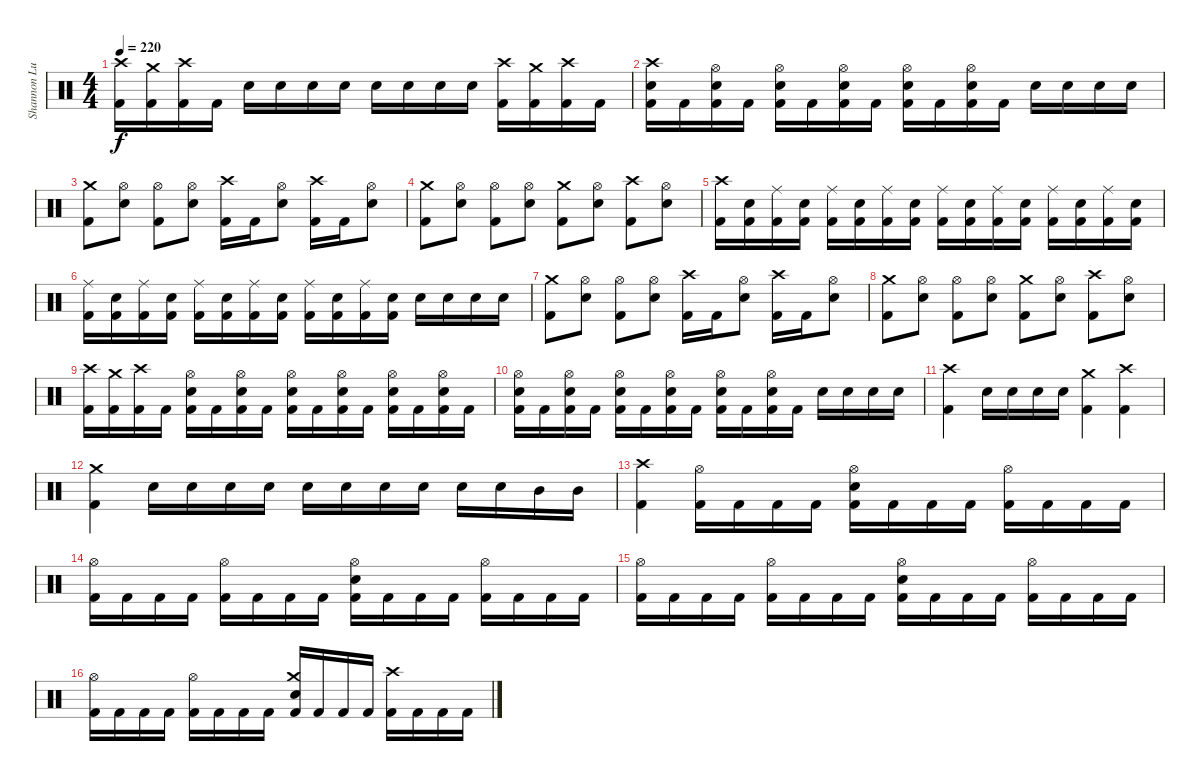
\track ("Shannon Lucas [Drums (Since 2007)]" "Shannon Lu") {instrument percussion}
\staff {score}
\articulation defaults
\ts (4 4)
\tempo 220
\clef neutral
\ks c
("Crash high (hit)" "Kick (hit) 2").16{dy f} ("Crash medium (hit)" "Kick (hit) 2").16 ("Crash high (hit)" "Kick (hit) 2").16 "Kick (hit) 2".16 "Snare (hit) 2".16 "Snare (hit) 2".16 "Snare (hit) 2".16 "Snare (hit) 2".16 "Snare (hit) 2".16 "Snare (hit) 2".16 "Snare (hit) 2".16 "Snare (hit) 2".16 ("Crash high (hit)" "Kick (hit) 2").16 ("Crash medium (hit)" "Kick (hit) 2").16 ("Crash high (hit)" "Kick (hit) 2").16 "Kick (hit) 2".16 |
("Crash high (hit)" "Snare (hit) 2" "Kick (hit) 2").16 "Kick (hit) 2".16 ("Hi-Hat (open)" "Snare (hit) 2" "Kick (hit) 2").16 "Kick (hit) 2".16 ("Hi-Hat (open)" "Snare (hit) 2" "Kick (hit) 2").16 "Kick (hit) 2".16 ("Hi-Hat (open)" "Snare (hit) 2" "Kick (hit) 2").16 "Kick (hit) 2".16 ("Hi-Hat (open)" "Snare (hit) 2" "Kick (hit) 2").16 "Kick (hit) 2".16 ("Hi-Hat (open)" "Snare (hit) 2" "Kick (hit) 2").16 "Kick (hit) 2".16 "Snare (hit) 2".16 "Snare (hit) 2".16 "Snare (hit) 2".16 "Snare (hit) 2".16 |
("Crash medium (hit)" "Kick (hit) 2").8 ("Hi-Hat (open)" "Snare (hit) 2").8 ("Hi-Hat (open)" "Kick (hit) 2").8 ("Hi-Hat (open)" "Snare (hit) 2").8 ("Crash high (hit)" "Kick (hit) 2").16 "Kick (hit) 2".16 ("Hi-Hat (open)" "Snare (hit) 2").8 ("Crash high (hit)" "Kick (hit) 2").16 "Kick (hit) 2".16 ("Hi-Hat (open)" "Snare (hit) 2").8 |
("Crash medium (hit)" "Kick (hit) 2").8 ("Hi-Hat (open)" "Snare (hit) 2").8 ("Hi-Hat (open)" "Kick (hit) 2").8 ("Hi-Hat (open)" "Snare (hit) 2").8 ("Crash medium (hit)" "Kick (hit) 2").8 ("Hi-Hat (open)" "Snare (hit) 2").8 ("Crash high (hit)" "Kick (hit) 2").8 ("Hi-Hat (open)" "Snare (hit) 2").8 |
("Crash high (hit)" "Kick (hit) 2").16 ("Snare (hit) 2" "Kick (hit) 2").16 ("Ride (middle)" "Kick (hit) 2").16 ("Snare (hit) 2" "Kick (hit) 2").16 ("Ride (middle)" "Kick (hit) 2").16 ("Snare (hit) 2" "Kick (hit) 2").16 ("Ride (middle)" "Kick (hit) 2").16 ("Snare (hit) 2" "Kick (hit) 2").16 ("Ride (middle)" "Kick (hit) 2").16 ("Snare (hit) 2" "Kick (hit) 2").16 ("Ride (middle)" "Kick (hit) 2").16 ("Snare (hit) 2" "Kick (hit) 2").16 ("Ride (middle)" "Kick (hit) 2").16 ("Snare (hit) 2" "Kick (hit) 2").16 ("Ride (middle)" "Kick (hit) 2").16 ("Snare (hit) 2" "Kick (hit) 2").16 |
("Ride (middle)" "Kick (hit) 2").16 ("Snare (hit) 2" "Kick (hit) 2").16 ("Ride (middle)" "Kick (hit) 2").16 ("Snare (hit) 2" "Kick (hit) 2").16 ("Ride (middle)" "Kick (hit) 2").16 ("Snare (hit) 2" "Kick (hit) 2").16 ("Ride (middle)" "Kick (hit) 2").16 ("Snare (hit) 2" "Kick (hit) 2").16 ("Ride (middle)" "Kick (hit) 2").16 ("Snare (hit) 2" "Kick (hit) 2").16 ("Ride (middle)" "Kick (hit) 2").16 ("Snare (hit) 2" "Kick (hit) 2").16 "Snare (hit) 2".16 "Snare (hit) 2".16 "Snare (hit) 2".16 "Snare (hit) 2".16 |
("Crash medium (hit)" "Kick (hit) 2").8 ("Hi-Hat (open)" "Snare (hit) 2").8 ("Hi-Hat (open)" "Kick (hit) 2").8 ("Hi-Hat (open)" "Snare (hit) 2").8 ("Crash high (hit)" "Kick (hit) 2").16 "Kick (hit) 2".16 ("Hi-Hat (open)" "Snare (hit) 2").8 ("Crash high (hit)" "Kick (hit) 2").16 "Kick (hit) 2".16 ("Hi-Hat (open)" "Snare (hit) 2").8 |
("Crash medium (hit)" "Kick (hit) 2").8 ("Hi-Hat (open)" "Snare (hit) 2").8 ("Hi-Hat (open)" "Kick (hit) 2").8 ("Hi-Hat (open)" "Snare (hit) 2").8 ("Crash medium (hit)" "Kick (hit) 2").8 ("Hi-Hat (open)" "Snare (hit) 2").8 ("Crash high (hit)" "Kick (hit) 2").8 ("Hi-Hat (open)" "Snare (hit) 2").8 |
("Crash high (hit)" "Kick (hit) 2").16 ("Crash medium (hit)" "Kick (hit) 2").16 ("Crash high (hit)" "Kick (hit) 2").16 "Kick (hit) 2".16 ("Hi-Hat (open)" "Snare (hit) 2" "Kick (hit) 2").16 "Kick (hit) 2".16 ("Hi-Hat (open)" "Snare (hit) 2" "Kick (hit) 2").16 "Kick (hit) 2".16 ("Hi-Hat (open)" "Snare (hit) 2" "Kick (hit) 2").16 "Kick (hit) 2".16 ("Hi-Hat (open)" "Snare (hit) 2" "Kick (hit) 2").16 "Kick (hit) 2".16 ("Hi-Hat (open)" "Snare (hit) 2" "Kick (hit) 2").16 "Kick (hit) 2".16 ("Hi-Hat (open)" "Snare (hit) 2" "Kick (hit) 2").16 "Kick (hit) 2".16 |
("Hi-Hat (open)" "Snare (hit) 2" "Kick (hit) 2").16 "Kick (hit) 2".16 ("Hi-Hat (open)" "Snare (hit) 2" "Kick (hit) 2").16 "Kick (hit) 2".16 ("Hi-Hat (open)" "Snare (hit) 2" "Kick (hit) 2").16 "Kick (hit) 2".16 ("Hi-Hat (open)" "Snare (hit) 2" "Kick (hit) 2").16 "Kick (hit) 2".16 ("Hi-Hat (open)" "Snare (hit) 2" "Kick (hit) 2").16 "Kick (hit) 2".16 ("Hi-Hat (open)" "Snare (hit) 2" "Kick (hit) 2").16 "Kick (hit) 2".16 "Snare (hit) 2".16 "Snare (hit) 2".16 "Snare (hit) 2".16 "Snare (hit) 2".16 |
("Crash high (hit)" "Kick (hit) 2").4 "Snare (hit) 2".16 "Snare (hit) 2".16 "Snare (hit) 2".16 "Snare (hit) 2".16 ("Crash medium (hit)" "Kick (hit) 2").4 ("Crash high (hit)" "Kick (hit) 2").4 |
("Crash medium (hit)" "Kick (hit) 2").4 "Snare (hit) 2".16 "Snare (hit) 2".16 "Snare (hit) 2".16 "Snare (hit) 2".16 "Snare (hit) 2".16 "Snare (hit) 2".16 "Snare (hit) 2".16 "Snare (hit) 2".16 "Snare (hit) 2".16 "Snare (hit) 2".16 "Mid Tom (hit)".16 "Mid Tom (hit)".16 |
("Crash high (hit)" "Kick (hit) 2").4 ("Hi-Hat (open)" "Kick (hit) 2").16 "Kick (hit) 2".16 "Kick (hit) 2".16 "Kick (hit) 2".16 ("Snare (hit) 2" "Hi-Hat (open)" "Kick (hit) 2").16 "Kick (hit) 2".16 "Kick (hit) 2".16 "Kick (hit) 2".16 ("Hi-Hat (open)" "Kick (hit) 2").16 "Kick (hit) 2".16 "Kick (hit) 2".16 "Kick (hit) 2".16 |
("Hi-Hat (open)" "Kick (hit) 2").16 "Kick (hit) 2".16 "Kick (hit) 2".16 "Kick (hit) 2".16 ("Hi-Hat (open)" "Kick (hit) 2").16 "Kick (hit) 2".16 "Kick (hit) 2".16 "Kick (hit) 2".16 ("Snare (hit) 2" "Hi-Hat (open)" "Kick (hit) 2").16 "Kick (hit) 2".16 "Kick (hit) 2".16 "Kick (hit) 2".16 ("Hi-Hat (open)" "Kick (hit) 2").16 "Kick (hit) 2".16 "Kick (hit) 2".16 "Kick (hit) 2".16 |
("Hi-Hat (open)" "Kick (hit) 2").16 "Kick (hit) 2".16 "Kick (hit) 2".16 "Kick (hit) 2".16 ("Hi-Hat (open)" "Kick (hit) 2").16 "Kick (hit) 2".16 "Kick (hit) 2".16 "Kick (hit) 2".16 ("Snare (hit) 2" "Hi-Hat (open)" "Kick (hit) 2").16 "Kick (hit) 2".16 "Kick (hit) 2".16 "Kick (hit) 2".16 ("Hi-Hat (open)" "Kick (hit) 2").16 "Kick (hit) 2".16 "Kick (hit) 2".16 "Kick (hit) 2".16 |
("Hi-Hat (open)" "Kick (hit) 2").16 "Kick (hit) 2".16 "Kick (hit) 2".16 "Kick (hit) 2".16 ("Hi-Hat (open)" "Kick (hit) 2").16 "Kick (hit) 2".16 "Kick (hit) 2".16 "Kick (hit) 2".16 ("Snare (hit) 2" "Crash medium (hit)" "Kick (hit) 2").16 "Kick (hit) 2".16 "Kick (hit) 2".16 "Kick (hit) 2".16 ("Crash high (hit)" "Kick (hit) 2").16 "Kick (hit) 2".16 "Kick (hit) 2".16 "Kick (hit) 2".16
